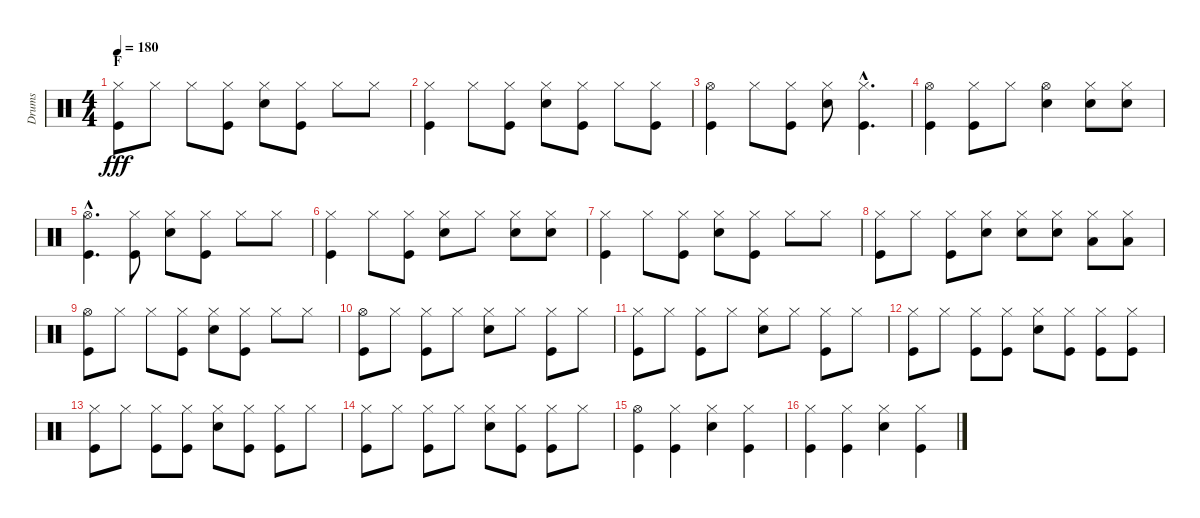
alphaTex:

\track ("Drums" "Drums") {instrument percussion}
\staff {score}
\articulation defaults
\ts (4 4)
\section ("" "F")
\tempo 180
\clef neutral
\ks c
("Hi-Hat (closed)" "Kick (hit)").8{dy fff} "Hi-Hat (closed)".8 "Hi-Hat (closed)".8 ("Hi-Hat (closed)" "Kick (hit)").8 ("Hi-Hat (closed)" "Snare (hit) 2").8 ("Hi-Hat (closed)" "Kick (hit)").8 "Hi-Hat (closed)".8 "Hi-Hat (closed)".8 |
("Hi-Hat (closed)" "Kick (hit)").4 "Hi-Hat (closed)".8 ("Hi-Hat (closed)" "Kick (hit)").8 ("Hi-Hat (closed)" "Snare (hit) 2").8 ("Hi-Hat (closed)" "Kick (hit)").8 "Hi-Hat (closed)".8 ("Hi-Hat (closed)" "Kick (hit)").8 |
("Hi-Hat (open)" "Kick (hit)").4 "Hi-Hat (closed)".8 ("Hi-Hat (closed)" "Kick (hit)").8 ("Hi-Hat (closed)" "Snare (hit) 2").8 ("Hi-Hat (closed)"{hac} "Kick (hit)"{hac}).4{d} |
("Hi-Hat (open)" "Kick (hit)").4 ("Hi-Hat (closed)" "Kick (hit)").8 "Hi-Hat (closed)".8 ("Hi-Hat (open)" "Snare (hit) 2").4 ("Hi-Hat (closed)" "Snare (hit) 2").8 ("Hi-Hat (closed)" "Snare (hit) 2").8 |
("Hi-Hat (open)"{hac} "Kick (hit)"{hac}).4{d} ("Hi-Hat (closed)" "Kick (hit)").8 ("Hi-Hat (closed)" "Snare (hit) 2").8 ("Hi-Hat (closed)" "Kick (hit)").8 "Hi-Hat (closed)".8 "Hi-Hat (closed)".8 |
("Hi-Hat (closed)" "Kick (hit)").4 "Hi-Hat (closed)".8 ("Hi-Hat (closed)" "Kick (hit)").8 ("Hi-Hat (closed)" "Snare (hit) 2").8 "Hi-Hat (closed)".8 ("Hi-Hat (closed)" "Snare (hit) 2").8 ("Hi-Hat (closed)" "Snare (hit) 2").8 |
("Hi-Hat (closed)" "Kick (hit)").4 "Hi-Hat (closed)".8 ("Hi-Hat (closed)" "Kick (hit)").8 ("Hi-Hat (closed)" "Snare (hit) 2").8 ("Hi-Hat (closed)" "Kick (hit)").8 "Hi-Hat (closed)".8 "Hi-Hat (closed)".8 |
("Hi-Hat (closed)" "Kick (hit)").8 "Hi-Hat (closed)".8 ("Hi-Hat (closed)" "Kick (hit)").8 ("Hi-Hat (closed)" "Snare (hit) 2").8 ("Hi-Hat (closed)" "Snare (hit) 2").8 ("Hi-Hat (closed)" "Snare (hit) 2").8 ("Hi-Hat (closed)" "Low Tom (hit)").8 ("Hi-Hat (closed)" "Low Tom (hit)").8 |
("Hi-Hat (open)" "Kick (hit)").8 "Hi-Hat (closed)".8 "Hi-Hat (closed)".8 ("Hi-Hat (closed)" "Kick (hit)").8 ("Hi-Hat (closed)" "Snare (hit) 2").8 ("Hi-Hat (closed)" "Kick (hit)").8 "Hi-Hat (closed)".8 "Hi-Hat (closed)".8 |
("Hi-Hat (open)" "Kick (hit)").8 "Hi-Hat (closed)".8 ("Hi-Hat (closed)" "Kick (hit)").8 "Hi-Hat (closed)".8 ("Hi-Hat (closed)" "Snare (hit) 2").8 "Hi-Hat (closed)".8 ("Hi-Hat (closed)" "Kick (hit)").8 "Hi-Hat (closed)".8 |
("Hi-Hat (closed)" "Kick (hit)").8 "Hi-Hat (closed)".8 ("Hi-Hat (closed)" "Kick (hit)").8 "Hi-Hat (closed)".8 ("Hi-Hat (closed)" "Snare (hit) 2").8 "Hi-Hat (closed)".8 ("Hi-Hat (closed)" "Kick (hit)").8 "Hi-Hat (closed)".8 |
("Hi-Hat (closed)" "Kick (hit)").8 "Hi-Hat (closed)".8 ("Hi-Hat (closed)" "Kick (hit)").8 ("Hi-Hat (closed)" "Kick (hit)").8 ("Hi-Hat (closed)" "Snare (hit) 2").8 ("Hi-Hat (closed)" "Kick (hit)").8 ("Hi-Hat (closed)" "Kick (hit)").8 ("Hi-Hat (closed)" "Kick (hit)").8 |
("Hi-Hat (closed)" "Kick (hit)").8 "Hi-Hat (closed)".8 ("Hi-Hat (closed)" "Kick (hit)").8 ("Hi-Hat (closed)" "Kick (hit)").8 ("Hi-Hat (closed)" "Snare (hit) 2").8 ("Hi-Hat (closed)" "Kick (hit)").8 ("Hi-Hat (closed)" "Kick (hit)").8 "Hi-Hat (closed)".8 |
("Hi-Hat (closed)" "Kick (hit)").8 "Hi-Hat (closed)".8 ("Hi-Hat (closed)" "Kick (hit)").8 "Hi-Hat (closed)".8 ("Hi-Hat (closed)" "Snare (hit) 2").8 ("Hi-Hat (closed)" "Kick (hit)").8 ("Hi-Hat (closed)" "Kick (hit)").8 "Hi-Hat (closed)".8 |
("Hi-Hat (open)" "Kick (hit)").4 ("Hi-Hat (closed)" "Kick (hit)").4 ("Hi-Hat (closed)" "Snare (hit) 2").4 ("Hi-Hat (closed)" "Kick (hit)").4 |
("Hi-Hat (closed)" "Kick (hit)").4 ("Hi-Hat (closed)" "Kick (hit)").4 ("Hi-Hat (closed)" "Snare (hit) 2").4 ("Hi-Hat (closed)" "Kick (hit)").4
